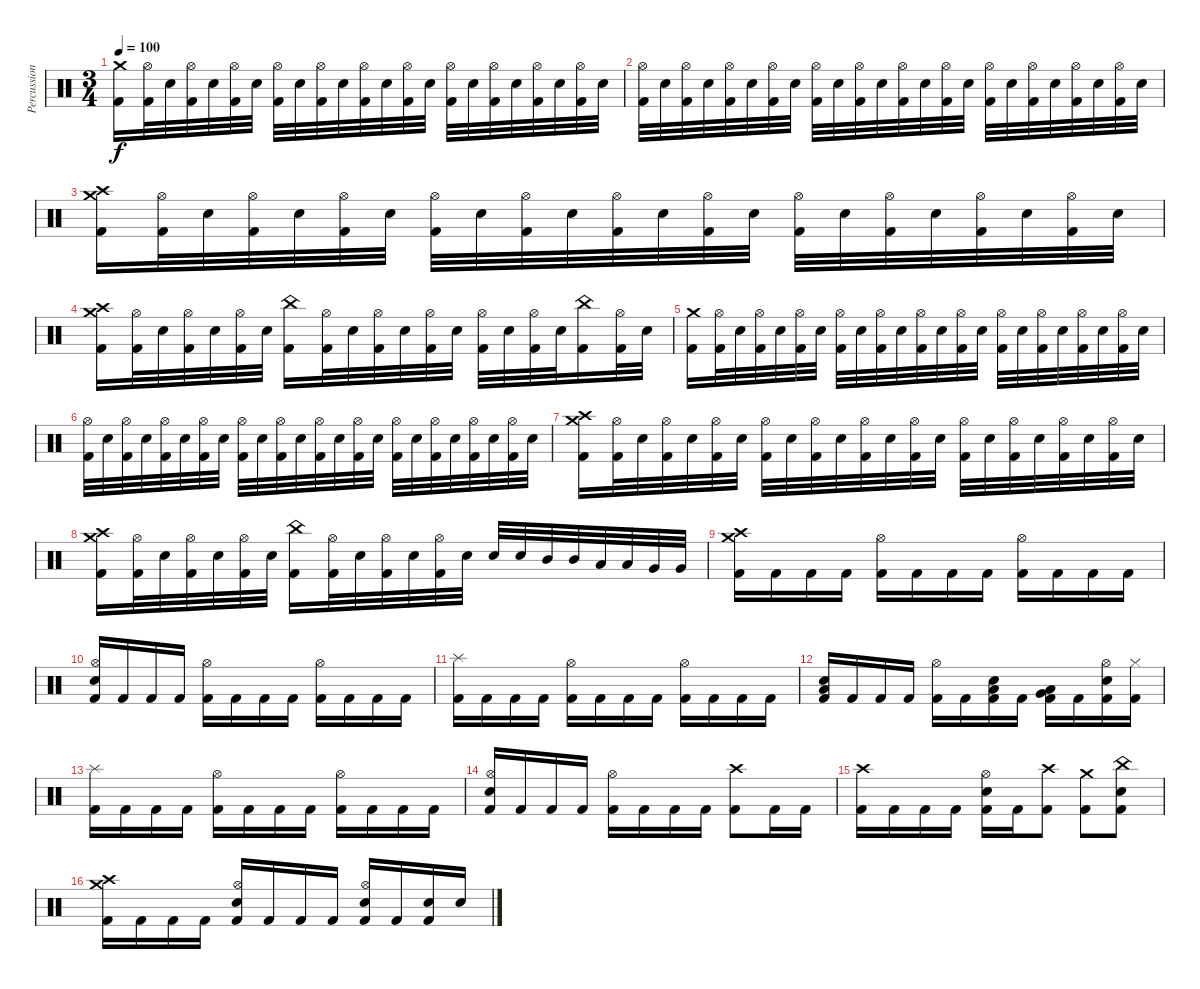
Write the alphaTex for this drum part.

\track ("Percussion" "Percussion") {instrument percussion}
\staff {score}
\articulation defaults
\ts (3 4)
\tempo 100
\clef neutral
\ks c
("Crash medium (hit)" "Kick (hit) 2").16{dy f} ("Hi-Hat (open)" "Kick (hit) 2").32 "Electric Snare (hit)".32 ("Hi-Hat (open)" "Kick (hit) 2").32 "Electric Snare (hit)".32 ("Hi-Hat (open)" "Kick (hit) 2").32 "Electric Snare (hit)".32 ("Hi-Hat (open)" "Kick (hit) 2").32 "Electric Snare (hit)".32 ("Hi-Hat (open)" "Kick (hit) 2").32 "Electric Snare (hit)".32 ("Hi-Hat (open)" "Kick (hit) 2").32 "Electric Snare (hit)".32 ("Hi-Hat (open)" "Kick (hit) 2").32 "Electric Snare (hit)".32 ("Hi-Hat (open)" "Kick (hit) 2").32 "Electric Snare (hit)".32 ("Hi-Hat (open)" "Kick (hit) 2").32 "Electric Snare (hit)".32 ("Hi-Hat (open)" "Kick (hit) 2").32 "Electric Snare (hit)".32 ("Hi-Hat (open)" "Kick (hit) 2").32 "Electric Snare (hit)".32 |
("Hi-Hat (open)" "Kick (hit) 2").32 "Electric Snare (hit)".32 ("Hi-Hat (open)" "Kick (hit) 2").32 "Electric Snare (hit)".32 ("Hi-Hat (open)" "Kick (hit) 2").32 "Electric Snare (hit)".32 ("Hi-Hat (open)" "Kick (hit) 2").32 "Electric Snare (hit)".32 ("Hi-Hat (open)" "Kick (hit) 2").32 "Electric Snare (hit)".32 ("Hi-Hat (open)" "Kick (hit) 2").32 "Electric Snare (hit)".32 ("Hi-Hat (open)" "Kick (hit) 2").32 "Electric Snare (hit)".32 ("Hi-Hat (open)" "Kick (hit) 2").32 "Electric Snare (hit)".32 ("Hi-Hat (open)" "Kick (hit) 2").32 "Electric Snare (hit)".32 ("Hi-Hat (open)" "Kick (hit) 2").32 "Electric Snare (hit)".32 ("Hi-Hat (open)" "Kick (hit) 2").32 "Electric Snare (hit)".32 ("Hi-Hat (open)" "Kick (hit) 2").32 "Electric Snare (hit)".32 |
("Crash medium (hit)" "Crash high (hit)" "Kick (hit) 2").16 ("Hi-Hat (open)" "Kick (hit) 2").32 "Electric Snare (hit)".32 ("Hi-Hat (open)" "Kick (hit) 2").32 "Electric Snare (hit)".32 ("Hi-Hat (open)" "Kick (hit) 2").32 "Electric Snare (hit)".32 ("Hi-Hat (open)" "Kick (hit) 2").32 "Electric Snare (hit)".32 ("Hi-Hat (open)" "Kick (hit) 2").32 "Electric Snare (hit)".32 ("Hi-Hat (open)" "Kick (hit) 2").32 "Electric Snare (hit)".32 ("Hi-Hat (open)" "Kick (hit) 2").32 "Electric Snare (hit)".32 ("Hi-Hat (open)" "Kick (hit) 2").32 "Electric Snare (hit)".32 ("Hi-Hat (open)" "Kick (hit) 2").32 "Electric Snare (hit)".32 ("Hi-Hat (open)" "Kick (hit) 2").32 "Electric Snare (hit)".32 ("Hi-Hat (open)" "Kick (hit) 2").32 "Electric Snare (hit)".32 |
("Crash medium (hit)" "Crash high (hit)" "Kick (hit) 2").16 ("Hi-Hat (open)" "Kick (hit) 2").32 "Electric Snare (hit)".32 ("Hi-Hat (open)" "Kick (hit) 2").32 "Electric Snare (hit)".32 ("Hi-Hat (open)" "Kick (hit) 2").32 "Electric Snare (hit)".32 ("China (hit)" "Kick (hit) 2").16 ("Hi-Hat (open)" "Kick (hit) 2").32 "Electric Snare (hit)".32 ("Hi-Hat (open)" "Kick (hit) 2").32 "Electric Snare (hit)".32 ("Hi-Hat (open)" "Kick (hit) 2").32 "Electric Snare (hit)".32 ("Hi-Hat (open)" "Kick (hit) 2").32 "Electric Snare (hit)".32 ("Hi-Hat (open)" "Kick (hit) 2").32 "Electric Snare (hit)".32 ("China (hit)" "Kick (hit) 2").16 ("Hi-Hat (open)" "Kick (hit) 2").32 "Electric Snare (hit)".32 |
("Crash medium (hit)" "Kick (hit) 2").16 ("Hi-Hat (open)" "Kick (hit) 2").32 "Electric Snare (hit)".32 ("Hi-Hat (open)" "Kick (hit) 2").32 "Electric Snare (hit)".32 ("Hi-Hat (open)" "Kick (hit) 2").32 "Electric Snare (hit)".32 ("Hi-Hat (open)" "Kick (hit) 2").32 "Electric Snare (hit)".32 ("Hi-Hat (open)" "Kick (hit) 2").32 "Electric Snare (hit)".32 ("Hi-Hat (open)" "Kick (hit) 2").32 "Electric Snare (hit)".32 ("Hi-Hat (open)" "Kick (hit) 2").32 "Electric Snare (hit)".32 ("Hi-Hat (open)" "Kick (hit) 2").32 "Electric Snare (hit)".32 ("Hi-Hat (open)" "Kick (hit) 2").32 "Electric Snare (hit)".32 ("Hi-Hat (open)" "Kick (hit) 2").32 "Electric Snare (hit)".32 ("Hi-Hat (open)" "Kick (hit) 2").32 "Electric Snare (hit)".32 |
("Hi-Hat (open)" "Kick (hit) 2").32 "Electric Snare (hit)".32 ("Hi-Hat (open)" "Kick (hit) 2").32 "Electric Snare (hit)".32 ("Hi-Hat (open)" "Kick (hit) 2").32 "Electric Snare (hit)".32 ("Hi-Hat (open)" "Kick (hit) 2").32 "Electric Snare (hit)".32 ("Hi-Hat (open)" "Kick (hit) 2").32 "Electric Snare (hit)".32 ("Hi-Hat (open)" "Kick (hit) 2").32 "Electric Snare (hit)".32 ("Hi-Hat (open)" "Kick (hit) 2").32 "Electric Snare (hit)".32 ("Hi-Hat (open)" "Kick (hit) 2").32 "Electric Snare (hit)".32 ("Hi-Hat (open)" "Kick (hit) 2").32 "Electric Snare (hit)".32 ("Hi-Hat (open)" "Kick (hit) 2").32 "Electric Snare (hit)".32 ("Hi-Hat (open)" "Kick (hit) 2").32 "Electric Snare (hit)".32 ("Hi-Hat (open)" "Kick (hit) 2").32 "Electric Snare (hit)".32 |
("Crash medium (hit)" "Crash high (hit)" "Kick (hit) 2").16 ("Hi-Hat (open)" "Kick (hit) 2").32 "Electric Snare (hit)".32 ("Hi-Hat (open)" "Kick (hit) 2").32 "Electric Snare (hit)".32 ("Hi-Hat (open)" "Kick (hit) 2").32 "Electric Snare (hit)".32 ("Hi-Hat (open)" "Kick (hit) 2").32 "Electric Snare (hit)".32 ("Hi-Hat (open)" "Kick (hit) 2").32 "Electric Snare (hit)".32 ("Hi-Hat (open)" "Kick (hit) 2").32 "Electric Snare (hit)".32 ("Hi-Hat (open)" "Kick (hit) 2").32 "Electric Snare (hit)".32 ("Hi-Hat (open)" "Kick (hit) 2").32 "Electric Snare (hit)".32 ("Hi-Hat (open)" "Kick (hit) 2").32 "Electric Snare (hit)".32 ("Hi-Hat (open)" "Kick (hit) 2").32 "Electric Snare (hit)".32 ("Hi-Hat (open)" "Kick (hit) 2").32 "Electric Snare (hit)".32 |
("Crash medium (hit)" "Crash high (hit)" "Kick (hit) 2").16 ("Hi-Hat (open)" "Kick (hit) 2").32 "Electric Snare (hit)".32 ("Hi-Hat (open)" "Kick (hit) 2").32 "Electric Snare (hit)".32 ("Hi-Hat (open)" "Kick (hit) 2").32 "Electric Snare (hit)".32 ("China (hit)" "Kick (hit) 2").16 ("Hi-Hat (open)" "Kick (hit) 2").32 "Electric Snare (hit)".32 ("Hi-Hat (open)" "Kick (hit) 2").32 "Electric Snare (hit)".32 ("Hi-Hat (open)" "Kick (hit) 2").32 "Electric Snare (hit)".32 "Electric Snare (hit)".32{balance 14} "Electric Snare (hit)".32 "Mid Tom (hit)".32{balance 12} "Mid Tom (hit)".32 "Low Tom (hit)".32 "Low Tom (hit)".32{balance 10} "Very Low Tom (hit)".32 "Very Low Tom (hit)".32 |
("Crash high (hit)" "Crash medium (hit)" "Kick (hit) 2").16{balance 8} "Kick (hit) 2".16 "Kick (hit) 2".16 "Kick (hit) 2".16 ("Hi-Hat (open)" "Kick (hit) 2").16 "Kick (hit) 2".16 "Kick (hit) 2".16 "Kick (hit) 2".16 ("Hi-Hat (open)" "Kick (hit) 2").16 "Kick (hit) 2".16 "Kick (hit) 2".16 "Kick (hit) 2".16 |
("Hi-Hat (open)" "Electric Snare (hit)" "Kick (hit) 2").16 "Kick (hit) 2".16 "Kick (hit) 2".16 "Kick (hit) 2".16 ("Hi-Hat (open)" "Kick (hit) 2").16 "Kick (hit) 2".16 "Kick (hit) 2".16 "Kick (hit) 2".16 ("Hi-Hat (open)" "Kick (hit) 2").16 "Kick (hit) 2".16 "Kick (hit) 2".16 "Kick (hit) 2".16 |
("Splash (hit)" "Kick (hit) 2").16 "Kick (hit) 2".16 "Kick (hit) 2".16 "Kick (hit) 2".16 ("Hi-Hat (open)" "Kick (hit) 2").16 "Kick (hit) 2".16 "Kick (hit) 2".16 "Kick (hit) 2".16 ("Hi-Hat (open)" "Kick (hit) 2").16 "Kick (hit) 2".16 "Kick (hit) 2".16 "Kick (hit) 2".16 |
("Low Tom (hit)" "Electric Snare (hit)" "Kick (hit) 2").16 "Kick (hit) 2".16 "Kick (hit) 2".16 "Kick (hit) 2".16 ("Hi-Hat (open)" "Kick (hit) 2").16 "Kick (hit) 2".16 ("Low Tom (hit)" "Electric Snare (hit)" "Kick (hit) 2").16 "Kick (hit) 2".16 ("Low Tom (hit)" "Very Low Tom (hit)" "Kick (hit) 2").16 "Kick (hit) 2".16 ("Hi-Hat (open)" "Electric Snare (hit)" "Kick (hit) 2").16 ("Hi-Hat (closed)" "Kick (hit) 2").16 |
("Splash (hit)" "Kick (hit) 2").16 "Kick (hit) 2".16 "Kick (hit) 2".16 "Kick (hit) 2".16 ("Hi-Hat (open)" "Kick (hit) 2").16 "Kick (hit) 2".16 "Kick (hit) 2".16 "Kick (hit) 2".16 ("Hi-Hat (open)" "Kick (hit) 2").16 "Kick (hit) 2".16 "Kick (hit) 2".16 "Kick (hit) 2".16 |
("Hi-Hat (open)" "Electric Snare (hit)" "Kick (hit) 2").16 "Kick (hit) 2".16 "Kick (hit) 2".16 "Kick (hit) 2".16 ("Hi-Hat (open)" "Kick (hit) 2").16 "Kick (hit) 2".16 "Kick (hit) 2".16 "Kick (hit) 2".16 ("Crash high (hit)" "Kick (hit) 2").8 "Kick (hit) 2".16 "Kick (hit) 2".16 |
("Crash high (hit)" "Kick (hit) 2").16 "Kick (hit) 2".16 "Kick (hit) 2".16 "Kick (hit) 2".16 ("Hi-Hat (open)" "Electric Snare (hit)" "Kick (hit) 2").16 "Kick (hit) 2".16 ("Crash high (hit)" "Kick (hit) 2").8 ("Crash medium (hit)" "Kick (hit) 2").8 ("China (hit)" "Electric Snare (hit)" "Kick (hit) 2").8 |
("Crash medium (hit)" "Crash high (hit)" "Kick (hit) 2").16 "Kick (hit) 2".16 "Kick (hit) 2".16 "Kick (hit) 2".16 ("Hi-Hat (open)" "Electric Snare (hit)" "Kick (hit) 2").16 "Kick (hit) 2".16 "Kick (hit) 2".16 "Kick (hit) 2".16 ("Hi-Hat (open)" "Electric Snare (hit)" "Kick (hit) 2").16 "Kick (hit) 2".16 ("Electric Snare (hit)" "Kick (hit) 2").16 "Electric Snare (hit)".16
